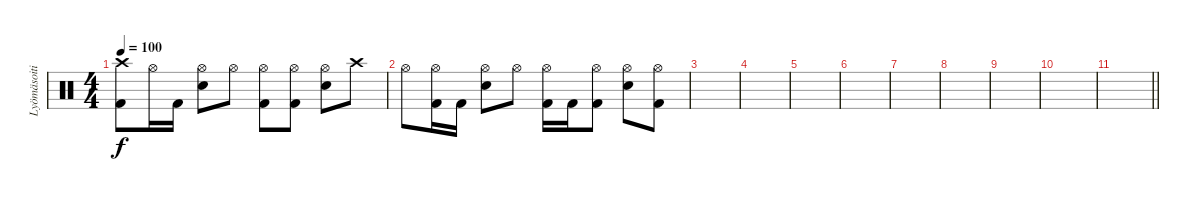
\track ("Lyömäsoitin" "Lyömäsoiti") {instrument percussion}
\staff {score}
\articulation defaults
\ts (4 4)
\tempo 100
\clef neutral
\ks c
("Crash high (hit)" "Kick (hit) 2").8{dy f} "Hi-Hat (open)".16 "Kick (hit) 2".16 ("Hi-Hat (open)" "Snare (hit) 2").8 "Hi-Hat (open)".8 ("Hi-Hat (open)" "Kick (hit) 2").8 ("Hi-Hat (open)" "Kick (hit) 2").8 ("Hi-Hat (open)" "Snare (hit) 2").8 "Crash high (hit)".8 |
"Hi-Hat (open)".8 ("Hi-Hat (open)" "Kick (hit) 2").16 "Kick (hit) 2".16 ("Hi-Hat (open)" "Snare (hit) 2").8 "Hi-Hat (open)".8 ("Hi-Hat (open)" "Kick (hit) 2").16 "Kick (hit) 2".16 ("Hi-Hat (open)" "Kick (hit) 2").8 ("Hi-Hat (open)" "Snare (hit) 2").8 ("Hi-Hat (open)" "Kick (hit) 2").8 |
|
|
|
|
|
|
|
|
\barLineRight lightlight
